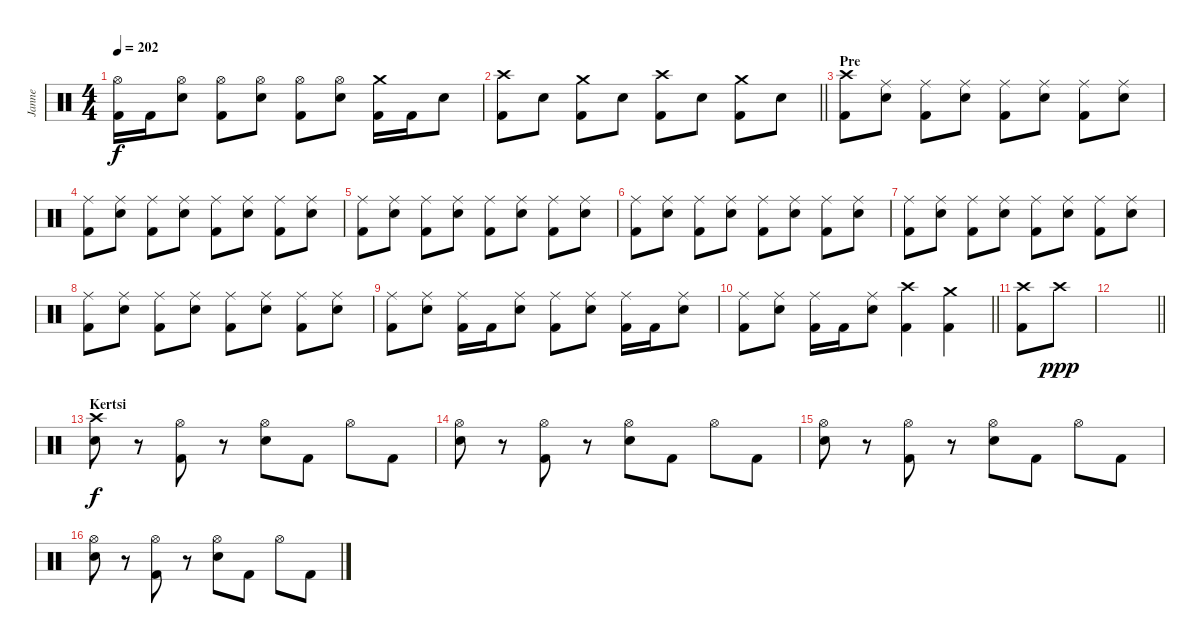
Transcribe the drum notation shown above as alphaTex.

\track ("Janne" "Janne") {instrument percussion}
\staff {score}
\articulation defaults
\ts (4 4)
\tempo 202
\clef neutral
\ks c
("Hi-Hat (open)" "Kick (hit) 2").16{dy f} "Kick (hit) 2".16 ("Hi-Hat (open)" "Electric Snare (hit)").8 ("Hi-Hat (open)" "Kick (hit) 2").8 ("Hi-Hat (open)" "Electric Snare (hit)").8 ("Hi-Hat (open)" "Kick (hit) 2").8 ("Hi-Hat (open)" "Electric Snare (hit)").8 ("Crash medium (hit)" "Kick (hit) 2").16 "Kick (hit) 2".16 "Electric Snare (hit)".8 |
\barLineRight lightlight
("Crash high (hit)" "Kick (hit) 2").8 "Electric Snare (hit)".8 ("Crash medium (hit)" "Kick (hit) 2").8 "Electric Snare (hit)".8 ("Crash high (hit)" "Kick (hit) 2").8 "Electric Snare (hit)".8 ("Crash medium (hit)" "Kick (hit) 2").8 "Electric Snare (hit)".8 |
\section ("" "Pre")
("Crash high (hit)" "Kick (hit) 2").8 ("Ride (middle)" "Electric Snare (hit)").8 ("Ride (middle)" "Kick (hit) 2").8 ("Ride (middle)" "Electric Snare (hit)").8 ("Ride (middle)" "Kick (hit) 2").8 ("Ride (middle)" "Electric Snare (hit)").8 ("Ride (middle)" "Kick (hit) 2").8 ("Ride (middle)" "Electric Snare (hit)").8 |
("Ride (middle)" "Kick (hit) 2").8 ("Ride (middle)" "Electric Snare (hit)").8 ("Ride (middle)" "Kick (hit) 2").8 ("Ride (middle)" "Electric Snare (hit)").8 ("Ride (middle)" "Kick (hit) 2").8 ("Ride (middle)" "Electric Snare (hit)").8 ("Ride (middle)" "Kick (hit) 2").8 ("Ride (middle)" "Electric Snare (hit)").8 |
("Ride (middle)" "Kick (hit) 2").8 ("Ride (middle)" "Electric Snare (hit)").8 ("Ride (middle)" "Kick (hit) 2").8 ("Ride (middle)" "Electric Snare (hit)").8 ("Ride (middle)" "Kick (hit) 2").8 ("Ride (middle)" "Electric Snare (hit)").8 ("Ride (middle)" "Kick (hit) 2").8 ("Ride (middle)" "Electric Snare (hit)").8 |
("Ride (middle)" "Kick (hit) 2").8 ("Ride (middle)" "Electric Snare (hit)").8 ("Ride (middle)" "Kick (hit) 2").8 ("Ride (middle)" "Electric Snare (hit)").8 ("Ride (middle)" "Kick (hit) 2").8 ("Ride (middle)" "Electric Snare (hit)").8 ("Ride (middle)" "Kick (hit) 2").8 ("Ride (middle)" "Electric Snare (hit)").8 |
("Ride (middle)" "Kick (hit) 2").8 ("Ride (middle)" "Electric Snare (hit)").8 ("Ride (middle)" "Kick (hit) 2").8 ("Ride (middle)" "Electric Snare (hit)").8 ("Ride (middle)" "Kick (hit) 2").8 ("Ride (middle)" "Electric Snare (hit)").8 ("Ride (middle)" "Kick (hit) 2").8 ("Ride (middle)" "Electric Snare (hit)").8 |
("Ride (middle)" "Kick (hit) 2").8 ("Ride (middle)" "Electric Snare (hit)").8 ("Ride (middle)" "Kick (hit) 2").8 ("Ride (middle)" "Electric Snare (hit)").8 ("Ride (middle)" "Kick (hit) 2").8 ("Ride (middle)" "Electric Snare (hit)").8 ("Ride (middle)" "Kick (hit) 2").8 ("Ride (middle)" "Electric Snare (hit)").8 |
("Ride (middle)" "Kick (hit) 2").8 ("Ride (middle)" "Electric Snare (hit)").8 ("Ride (middle)" "Kick (hit) 2").16 "Kick (hit) 2".16 ("Ride (middle)" "Electric Snare (hit)").8 ("Ride (middle)" "Kick (hit) 2").8 ("Ride (middle)" "Electric Snare (hit)").8 ("Ride (middle)" "Kick (hit) 2").16 "Kick (hit) 2".16 ("Ride (middle)" "Electric Snare (hit)").8 |
\barLineRight lightlight
("Ride (middle)" "Kick (hit) 2").8 ("Ride (middle)" "Electric Snare (hit)").8 ("Ride (middle)" "Kick (hit) 2").16 "Kick (hit) 2".16 ("Ride (middle)" "Electric Snare (hit)").8 ("Crash high (hit)" "Kick (hit) 2").4 ("Crash medium (hit)" "Kick (hit) 2").4 |
\section ("" "")
("Crash high (hit)" "Kick (hit) 2").8 "Crash high (hit)".8{dy ppp} |
\barLineRight lightlight
|
\section ("" "Kertsi")
("Crash high (hit)" "Electric Snare (hit)").8{dy f} r.8 ("Hi-Hat (open)" "Kick (hit) 2").8 r.8 ("Hi-Hat (open)" "Electric Snare (hit)").8 "Kick (hit) 2".8 "Hi-Hat (open)".8 "Kick (hit) 2".8 |
("Hi-Hat (open)" "Electric Snare (hit)").8 r.8 ("Hi-Hat (open)" "Kick (hit) 2").8 r.8 ("Hi-Hat (open)" "Electric Snare (hit)").8 "Kick (hit) 2".8 "Hi-Hat (open)".8 "Kick (hit) 2".8 |
("Hi-Hat (open)" "Electric Snare (hit)").8 r.8 ("Hi-Hat (open)" "Kick (hit) 2").8 r.8 ("Hi-Hat (open)" "Electric Snare (hit)").8 "Kick (hit) 2".8 "Hi-Hat (open)".8 "Kick (hit) 2".8 |
("Hi-Hat (open)" "Electric Snare (hit)").8 r.8 ("Hi-Hat (open)" "Kick (hit) 2").8 r.8 ("Hi-Hat (open)" "Electric Snare (hit)").8 "Kick (hit) 2".8 "Hi-Hat (open)".8 "Kick (hit) 2".8
